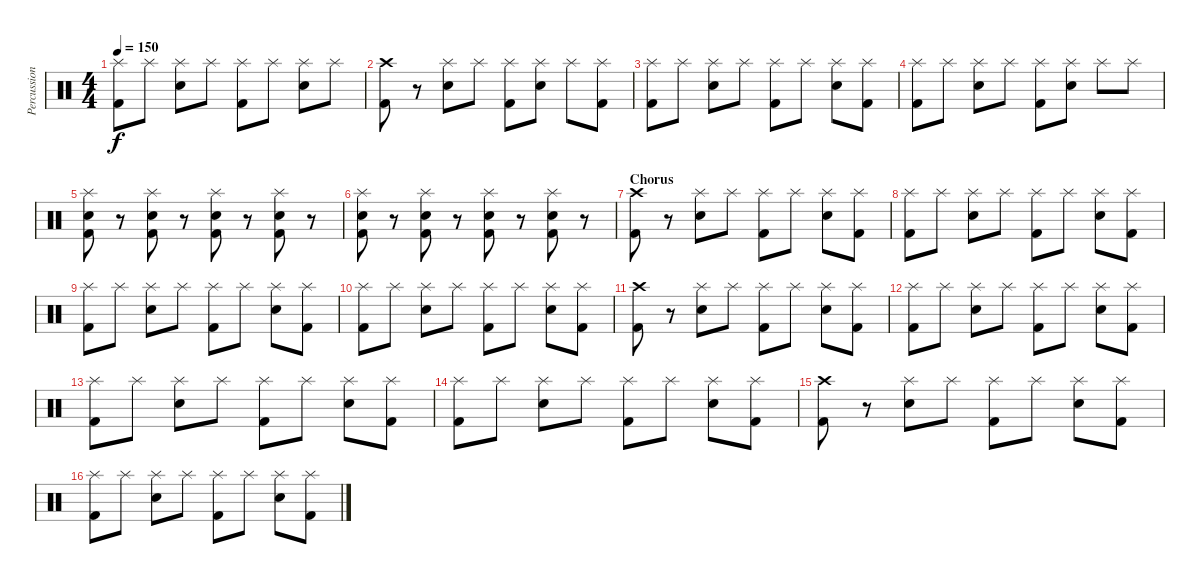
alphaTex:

\track ("Percussion" "Percussion") {instrument percussion}
\staff {score}
\articulation defaults
\ts (4 4)
\tempo 150
\clef neutral
\ks c
("Splash (hit)" "Kick (hit) 2").8{dy f} "Splash (hit)".8 ("Splash (hit)" "Electric Snare (hit)").8 "Splash (hit)".8 ("Splash (hit)" "Kick (hit) 2").8 "Splash (hit)".8 ("Splash (hit)" "Electric Snare (hit)").8 "Splash (hit)".8 |
("Crash high (hit)" "Kick (hit) 2").8 r.8 ("Splash (hit)" "Electric Snare (hit)").8 "Splash (hit)".8 ("Splash (hit)" "Kick (hit) 2").8 ("Splash (hit)" "Electric Snare (hit)").8 "Splash (hit)".8 ("Splash (hit)" "Kick (hit) 2").8 |
("Splash (hit)" "Kick (hit) 2").8 "Splash (hit)".8 ("Splash (hit)" "Electric Snare (hit)").8 "Splash (hit)".8 ("Splash (hit)" "Kick (hit) 2").8 "Splash (hit)".8 ("Splash (hit)" "Electric Snare (hit)").8 ("Splash (hit)" "Kick (hit) 2").8 |
("Splash (hit)" "Kick (hit) 2").8 "Splash (hit)".8 ("Splash (hit)" "Electric Snare (hit)").8 "Splash (hit)".8 ("Splash (hit)" "Kick (hit) 2").8 ("Splash (hit)" "Electric Snare (hit)").8 "Splash (hit)".8 "Splash (hit)".8 |
("Splash (hit)" "Electric Snare (hit)" "Kick (hit) 2").8 r.8 ("Splash (hit)" "Electric Snare (hit)" "Kick (hit) 2").8 r.8 ("Splash (hit)" "Electric Snare (hit)" "Kick (hit) 2").8 r.8 ("Splash (hit)" "Electric Snare (hit)" "Kick (hit) 2").8 r.8 |
("Splash (hit)" "Electric Snare (hit)" "Kick (hit) 2").8 r.8 ("Splash (hit)" "Electric Snare (hit)" "Kick (hit) 2").8 r.8 ("Splash (hit)" "Electric Snare (hit)" "Kick (hit) 2").8 r.8 ("Splash (hit)" "Electric Snare (hit)" "Kick (hit) 2").8 r.8 |
\section ("" "Chorus")
("Crash high (hit)" "Kick (hit) 2").8 r.8 ("Splash (hit)" "Electric Snare (hit)").8 "Splash (hit)".8 ("Splash (hit)" "Kick (hit) 2").8 "Splash (hit)".8 ("Splash (hit)" "Electric Snare (hit)").8 ("Splash (hit)" "Kick (hit) 2").8 |
("Splash (hit)" "Kick (hit) 2").8 "Splash (hit)".8 ("Splash (hit)" "Electric Snare (hit)").8 "Splash (hit)".8 ("Splash (hit)" "Kick (hit) 2").8 "Splash (hit)".8 ("Splash (hit)" "Electric Snare (hit)").8 ("Splash (hit)" "Kick (hit) 2").8 |
("Splash (hit)" "Kick (hit) 2").8 "Splash (hit)".8 ("Splash (hit)" "Electric Snare (hit)").8 "Splash (hit)".8 ("Splash (hit)" "Kick (hit) 2").8 "Splash (hit)".8 ("Splash (hit)" "Electric Snare (hit)").8 ("Splash (hit)" "Kick (hit) 2").8 |
("Splash (hit)" "Kick (hit) 2").8 "Splash (hit)".8 ("Splash (hit)" "Electric Snare (hit)").8 "Splash (hit)".8 ("Splash (hit)" "Kick (hit) 2").8 "Splash (hit)".8 ("Splash (hit)" "Electric Snare (hit)").8 ("Splash (hit)" "Kick (hit) 2").8 |
("Crash high (hit)" "Kick (hit) 2").8 r.8 ("Splash (hit)" "Electric Snare (hit)").8 "Splash (hit)".8 ("Splash (hit)" "Kick (hit) 2").8 "Splash (hit)".8 ("Splash (hit)" "Electric Snare (hit)").8 ("Splash (hit)" "Kick (hit) 2").8 |
("Splash (hit)" "Kick (hit) 2").8 "Splash (hit)".8 ("Splash (hit)" "Electric Snare (hit)").8 "Splash (hit)".8 ("Splash (hit)" "Kick (hit) 2").8 "Splash (hit)".8 ("Splash (hit)" "Electric Snare (hit)").8 ("Splash (hit)" "Kick (hit) 2").8 |
("Splash (hit)" "Kick (hit) 2").8 "Splash (hit)".8 ("Splash (hit)" "Electric Snare (hit)").8 "Splash (hit)".8 ("Splash (hit)" "Kick (hit) 2").8 "Splash (hit)".8 ("Splash (hit)" "Electric Snare (hit)").8 ("Splash (hit)" "Kick (hit) 2").8 |
("Splash (hit)" "Kick (hit) 2").8 "Splash (hit)".8 ("Splash (hit)" "Electric Snare (hit)").8 "Splash (hit)".8 ("Splash (hit)" "Kick (hit) 2").8 "Splash (hit)".8 ("Splash (hit)" "Electric Snare (hit)").8 ("Splash (hit)" "Kick (hit) 2").8 |
("Crash high (hit)" "Kick (hit) 2").8 r.8 ("Splash (hit)" "Electric Snare (hit)").8 "Splash (hit)".8 ("Splash (hit)" "Kick (hit) 2").8 "Splash (hit)".8 ("Splash (hit)" "Electric Snare (hit)").8 ("Splash (hit)" "Kick (hit) 2").8 |
("Splash (hit)" "Kick (hit) 2").8 "Splash (hit)".8 ("Splash (hit)" "Electric Snare (hit)").8 "Splash (hit)".8 ("Splash (hit)" "Kick (hit) 2").8 "Splash (hit)".8 ("Splash (hit)" "Electric Snare (hit)").8 ("Splash (hit)" "Kick (hit) 2").8
